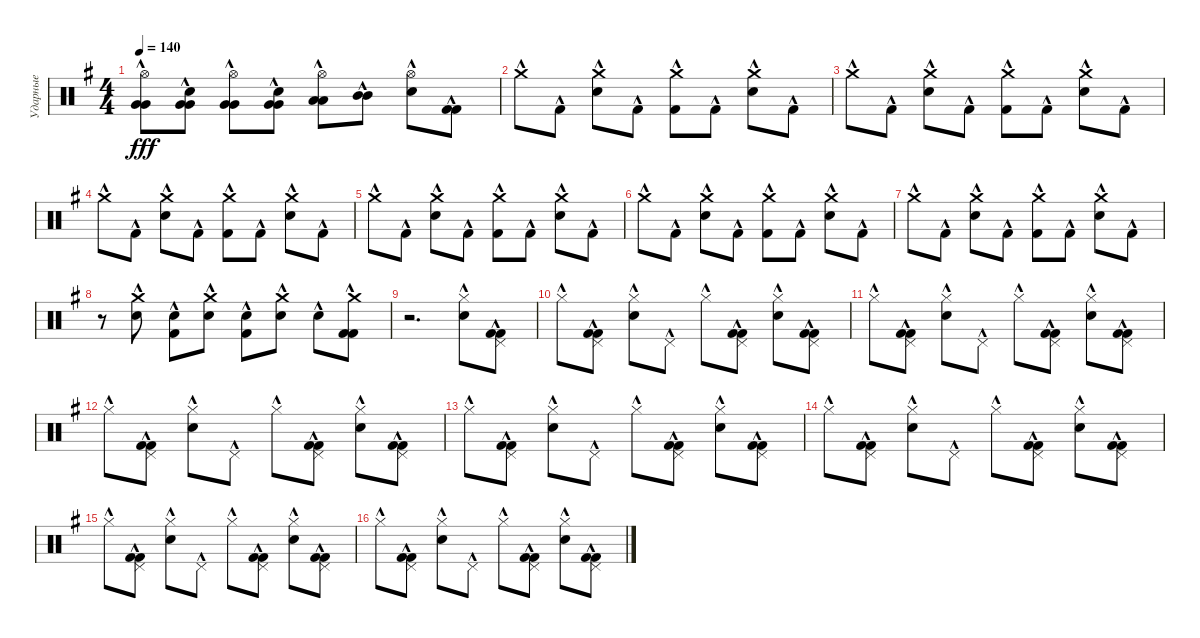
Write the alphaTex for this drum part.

\track ("Ударные" "Ударные") {instrument percussion}
\staff {score}
\articulation defaults
\ts (4 4)
\tempo 140
\clef neutral
\ks g
("Hi-Hat (open)"{hac} "Very Low Tom (hit)"{hac} "Very Low Tom (hit)"{hac}).8{dy fff} ("Electric Snare (hit)"{hac} "Very Low Tom (hit)"{hac} "Very Low Tom (hit)"{hac}).8 ("Hi-Hat (open)"{hac} "Very Low Tom (hit)"{hac} "Very Low Tom (hit)"{hac}).8 ("Electric Snare (hit)"{hac} "Very Low Tom (hit)"{hac} "Very Low Tom (hit)"{hac}).8 ("Hi-Hat (open)"{hac} "Low Tom (hit)"{hac} "Low Tom (hit)"{hac}).8 ("Mid Tom (hit)"{hac} "Mid Tom (hit)"{hac}).8 ("Hi-Hat (open)"{hac} "Electric Snare (hit)"{hac}).8 ("Kick (hit) 2"{hac} "Kick (hit) 2"{hac}).8 |
"Crash medium (hit)"{hac}.8 "Kick (hit) 2"{hac}.8 ("Crash medium (hit)"{hac} "Electric Snare (hit)"{hac}).8 "Kick (hit) 2"{hac}.8 ("Crash medium (hit)"{hac} "Kick (hit) 2"{hac}).8 "Kick (hit) 2"{hac}.8 ("Crash medium (hit)"{hac} "Electric Snare (hit)"{hac}).8 "Kick (hit) 2"{hac}.8 |
"Crash medium (hit)"{hac}.8 "Kick (hit) 2"{hac}.8 ("Crash medium (hit)"{hac} "Electric Snare (hit)"{hac}).8 "Kick (hit) 2"{hac}.8 ("Crash medium (hit)"{hac} "Kick (hit) 2"{hac}).8 "Kick (hit) 2"{hac}.8 ("Crash medium (hit)"{hac} "Electric Snare (hit)"{hac}).8 "Kick (hit) 2"{hac}.8 |
"Crash medium (hit)"{hac}.8 "Kick (hit) 2"{hac}.8 ("Crash medium (hit)"{hac} "Electric Snare (hit)"{hac}).8 "Kick (hit) 2"{hac}.8 ("Crash medium (hit)"{hac} "Kick (hit) 2"{hac}).8 "Kick (hit) 2"{hac}.8 ("Crash medium (hit)"{hac} "Electric Snare (hit)"{hac}).8 "Kick (hit) 2"{hac}.8 |
"Crash medium (hit)"{hac}.8 "Kick (hit) 2"{hac}.8 ("Crash medium (hit)"{hac} "Electric Snare (hit)"{hac}).8 "Kick (hit) 2"{hac}.8 ("Crash medium (hit)"{hac} "Kick (hit) 2"{hac}).8 "Kick (hit) 2"{hac}.8 ("Crash medium (hit)"{hac} "Electric Snare (hit)"{hac}).8 "Kick (hit) 2"{hac}.8 |
"Crash medium (hit)"{hac}.8 "Kick (hit) 2"{hac}.8 ("Crash medium (hit)"{hac} "Electric Snare (hit)"{hac}).8 "Kick (hit) 2"{hac}.8 ("Crash medium (hit)"{hac} "Kick (hit) 2"{hac}).8 "Kick (hit) 2"{hac}.8 ("Crash medium (hit)"{hac} "Electric Snare (hit)"{hac}).8 "Kick (hit) 2"{hac}.8 |
"Crash medium (hit)"{hac}.8 "Kick (hit) 2"{hac}.8 ("Crash medium (hit)"{hac} "Electric Snare (hit)"{hac}).8 "Kick (hit) 2"{hac}.8 ("Crash medium (hit)"{hac} "Kick (hit) 2"{hac}).8 "Kick (hit) 2"{hac}.8 ("Crash medium (hit)"{hac} "Electric Snare (hit)"{hac}).8 "Kick (hit) 2"{hac}.8 |
r.8 ("Crash medium (hit)"{hac} "Electric Snare (hit)"{hac}).8 ("Electric Snare (hit)"{hac} "Kick (hit) 2"{hac}).8 ("Crash medium (hit)"{hac} "Electric Snare (hit)"{hac}).8 ("Electric Snare (hit)"{hac} "Kick (hit) 2"{hac}).8 ("Crash medium (hit)"{hac} "Electric Snare (hit)"{hac}).8 "Electric Snare (hit)"{hac}.8 ("Crash medium (hit)"{hac} "Kick (hit) 2"{hac} "Kick (hit) 2"{hac}).8 |
r.2{d} ("Hi-Hat (closed)"{hac} "Electric Snare (hit)"{hac}).8 ("Pedal Hi-Hat (hit)"{hac} "Kick (hit) 2"{hac} "Kick (hit) 2"{hac}).8 |
"Hi-Hat (closed)"{hac}.8 ("Pedal Hi-Hat (hit)"{hac} "Kick (hit) 2"{hac} "Kick (hit) 2"{hac}).8 ("Hi-Hat (closed)"{hac} "Electric Snare (hit)"{hac}).8 "Pedal Hi-Hat (hit)"{hac}.8 "Hi-Hat (closed)"{hac}.8 ("Pedal Hi-Hat (hit)"{hac} "Kick (hit) 2"{hac} "Kick (hit) 2"{hac}).8 ("Hi-Hat (closed)"{hac} "Electric Snare (hit)"{hac}).8 ("Pedal Hi-Hat (hit)"{hac} "Kick (hit) 2"{hac} "Kick (hit) 2"{hac}).8 |
"Hi-Hat (closed)"{hac}.8 ("Pedal Hi-Hat (hit)"{hac} "Kick (hit) 2"{hac} "Kick (hit) 2"{hac}).8 ("Hi-Hat (closed)"{hac} "Electric Snare (hit)"{hac}).8 "Pedal Hi-Hat (hit)"{hac}.8 "Hi-Hat (closed)"{hac}.8 ("Pedal Hi-Hat (hit)"{hac} "Kick (hit) 2"{hac} "Kick (hit) 2"{hac}).8 ("Hi-Hat (closed)"{hac} "Electric Snare (hit)"{hac}).8 ("Pedal Hi-Hat (hit)"{hac} "Kick (hit) 2"{hac} "Kick (hit) 2"{hac}).8 |
"Hi-Hat (closed)"{hac}.8 ("Pedal Hi-Hat (hit)"{hac} "Kick (hit) 2"{hac} "Kick (hit) 2"{hac}).8 ("Hi-Hat (closed)"{hac} "Electric Snare (hit)"{hac}).8 "Pedal Hi-Hat (hit)"{hac}.8 "Hi-Hat (closed)"{hac}.8 ("Pedal Hi-Hat (hit)"{hac} "Kick (hit) 2"{hac} "Kick (hit) 2"{hac}).8 ("Hi-Hat (closed)"{hac} "Electric Snare (hit)"{hac}).8 ("Pedal Hi-Hat (hit)"{hac} "Kick (hit) 2"{hac} "Kick (hit) 2"{hac}).8 |
"Hi-Hat (closed)"{hac}.8 ("Pedal Hi-Hat (hit)"{hac} "Kick (hit) 2"{hac} "Kick (hit) 2"{hac}).8 ("Hi-Hat (closed)"{hac} "Electric Snare (hit)"{hac}).8 "Pedal Hi-Hat (hit)"{hac}.8 "Hi-Hat (closed)"{hac}.8 ("Pedal Hi-Hat (hit)"{hac} "Kick (hit) 2"{hac} "Kick (hit) 2"{hac}).8 ("Hi-Hat (closed)"{hac} "Electric Snare (hit)"{hac}).8 ("Pedal Hi-Hat (hit)"{hac} "Kick (hit) 2"{hac} "Kick (hit) 2"{hac}).8 |
"Hi-Hat (closed)"{hac}.8 ("Pedal Hi-Hat (hit)"{hac} "Kick (hit) 2"{hac} "Kick (hit) 2"{hac}).8 ("Hi-Hat (closed)"{hac} "Electric Snare (hit)"{hac}).8 "Pedal Hi-Hat (hit)"{hac}.8 "Hi-Hat (closed)"{hac}.8 ("Pedal Hi-Hat (hit)"{hac} "Kick (hit) 2"{hac} "Kick (hit) 2"{hac}).8 ("Hi-Hat (closed)"{hac} "Electric Snare (hit)"{hac}).8 ("Pedal Hi-Hat (hit)"{hac} "Kick (hit) 2"{hac} "Kick (hit) 2"{hac}).8 |
"Hi-Hat (closed)"{hac}.8 ("Pedal Hi-Hat (hit)"{hac} "Kick (hit) 2"{hac} "Kick (hit) 2"{hac}).8 ("Hi-Hat (closed)"{hac} "Electric Snare (hit)"{hac}).8 "Pedal Hi-Hat (hit)"{hac}.8 "Hi-Hat (closed)"{hac}.8 ("Pedal Hi-Hat (hit)"{hac} "Kick (hit) 2"{hac} "Kick (hit) 2"{hac}).8 ("Hi-Hat (closed)"{hac} "Electric Snare (hit)"{hac}).8 ("Pedal Hi-Hat (hit)"{hac} "Kick (hit) 2"{hac} "Kick (hit) 2"{hac}).8 |
"Hi-Hat (closed)"{hac}.8 ("Pedal Hi-Hat (hit)"{hac} "Kick (hit) 2"{hac} "Kick (hit) 2"{hac}).8 ("Hi-Hat (closed)"{hac} "Electric Snare (hit)"{hac}).8 "Pedal Hi-Hat (hit)"{hac}.8 "Hi-Hat (closed)"{hac}.8 ("Pedal Hi-Hat (hit)"{hac} "Kick (hit) 2"{hac} "Kick (hit) 2"{hac}).8 ("Hi-Hat (closed)"{hac} "Electric Snare (hit)"{hac}).8 ("Pedal Hi-Hat (hit)"{hac} "Kick (hit) 2"{hac} "Kick (hit) 2"{hac}).8
